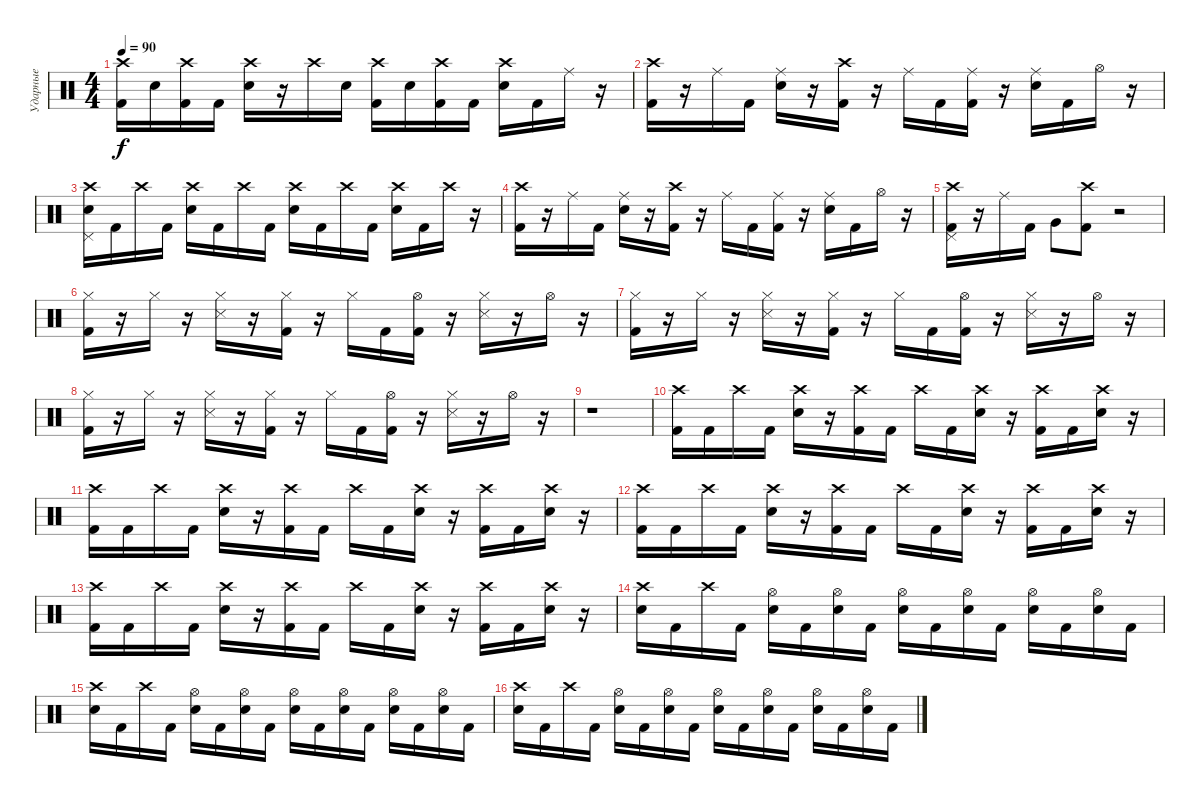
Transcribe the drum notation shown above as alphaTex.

\track ("Ударные" "Ударные") {instrument percussion}
\staff {score}
\articulation defaults
\ts (4 4)
\tempo 90
\clef neutral
\ks c
("Crash high (hit)" "Kick (hit) 2").16{dy f} "Electric Snare (hit)".16 ("Crash high (hit)" "Kick (hit) 2").16 "Kick (hit) 2".16 ("Crash high (hit)" "Electric Snare (hit)").16 r.16 "Crash high (hit)".16 "Electric Snare (hit)".16 ("Crash high (hit)" "Kick (hit) 2").16 "Electric Snare (hit)".16 ("Crash high (hit)" "Kick (hit) 2").16 "Kick (hit) 2".16 ("Crash high (hit)" "Electric Snare (hit)").16 "Kick (hit) 2".16 "Ride (middle)".16 r.16 |
("Crash high (hit)" "Kick (hit) 2").16 r.16 "Ride (middle)".16 "Kick (hit) 2".16 ("Ride (middle)" "Electric Snare (hit)").16 r.16 ("Crash high (hit)" "Kick (hit) 2").16 r.16 "Ride (middle)".16 "Kick (hit) 2".16 ("Ride (middle)" "Kick (hit) 2").16 r.16 ("Ride (middle)" "Electric Snare (hit)").16 "Kick (hit) 2".16 "Hi-Hat (open)".16 r.16 |
("Crash high (hit)" "Pedal Hi-Hat (hit)" "Electric Snare (hit)").16 "Kick (hit) 2".16 "Crash high (hit)".16 "Kick (hit) 2".16 ("Crash high (hit)" "Electric Snare (hit)").16 "Kick (hit) 2".16 "Crash high (hit)".16 "Kick (hit) 2".16 ("Crash high (hit)" "Electric Snare (hit)").16 "Kick (hit) 2".16 "Crash high (hit)".16 "Kick (hit) 2".16 ("Crash high (hit)" "Electric Snare (hit)").16 "Kick (hit) 2".16 "Crash high (hit)".16 r.16 |
("Crash high (hit)" "Kick (hit) 2").16 r.16 "Ride (middle)".16 "Kick (hit) 2".16 ("Ride (middle)" "Electric Snare (hit)").16 r.16 ("Crash high (hit)" "Kick (hit) 2").16 r.16 "Ride (middle)".16 "Kick (hit) 2".16 ("Ride (middle)" "Kick (hit) 2").16 r.16 ("Ride (middle)" "Electric Snare (hit)").16 "Kick (hit) 2".16 "Hi-Hat (open)".16 r.16 |
("Crash high (hit)" "Pedal Hi-Hat (hit)" "Kick (hit) 2").16 r.16 "Ride (middle)".16 "Kick (hit) 2".16 "Very Low Tom (hit)".8 ("Crash high (hit)" "Kick (hit) 2").8 r.2 |
("Hi-Hat (closed)" "Kick (hit) 2").16 r.16 "Hi-Hat (closed)".16 r.16 ("Hi-Hat (closed)" "Snare (side stick) 3").16 r.16 ("Hi-Hat (closed)" "Kick (hit) 2").16 r.16 "Hi-Hat (closed)".16 "Kick (hit) 2".16 ("Hi-Hat (open)" "Kick (hit) 2").16 r.16 ("Hi-Hat (closed)" "Snare (side stick) 3").16 r.16 "Hi-Hat (open)".16 r.16 |
("Hi-Hat (closed)" "Kick (hit) 2").16 r.16 "Hi-Hat (closed)".16 r.16 ("Hi-Hat (closed)" "Snare (side stick) 3").16 r.16 ("Hi-Hat (closed)" "Kick (hit) 2").16 r.16 "Hi-Hat (closed)".16 "Kick (hit) 2".16 ("Hi-Hat (open)" "Kick (hit) 2").16 r.16 ("Hi-Hat (closed)" "Snare (side stick) 3").16 r.16 "Hi-Hat (open)".16 r.16 |
("Hi-Hat (closed)" "Kick (hit) 2").16 r.16 "Hi-Hat (closed)".16 r.16 ("Hi-Hat (closed)" "Snare (side stick) 3").16 r.16 ("Hi-Hat (closed)" "Kick (hit) 2").16 r.16 "Hi-Hat (closed)".16 "Kick (hit) 2".16 ("Hi-Hat (open)" "Kick (hit) 2").16 r.16 ("Hi-Hat (closed)" "Snare (side stick) 3").16 r.16 "Hi-Hat (open)".16 r.16 |
r.1 |
("Crash high (hit)" "Kick (hit) 2").16 "Kick (hit) 2".16 "Crash high (hit)".16 "Kick (hit) 2".16 ("Crash high (hit)" "Electric Snare (hit)").16 r.16 ("Crash high (hit)" "Kick (hit) 2").16 "Kick (hit) 2".16 "Crash high (hit)".16 "Kick (hit) 2".16 ("Crash high (hit)" "Electric Snare (hit)").16 r.16 ("Crash high (hit)" "Kick (hit) 2").16 "Kick (hit) 2".16 ("Crash high (hit)" "Electric Snare (hit)").16 r.16 |
("Crash high (hit)" "Kick (hit) 2").16 "Kick (hit) 2".16 "Crash high (hit)".16 "Kick (hit) 2".16 ("Crash high (hit)" "Electric Snare (hit)").16 r.16 ("Crash high (hit)" "Kick (hit) 2").16 "Kick (hit) 2".16 "Crash high (hit)".16 "Kick (hit) 2".16 ("Crash high (hit)" "Electric Snare (hit)").16 r.16 ("Crash high (hit)" "Kick (hit) 2").16 "Kick (hit) 2".16 ("Crash high (hit)" "Electric Snare (hit)").16 r.16 |
("Crash high (hit)" "Kick (hit) 2").16 "Kick (hit) 2".16 "Crash high (hit)".16 "Kick (hit) 2".16 ("Crash high (hit)" "Electric Snare (hit)").16 r.16 ("Crash high (hit)" "Kick (hit) 2").16 "Kick (hit) 2".16 "Crash high (hit)".16 "Kick (hit) 2".16 ("Crash high (hit)" "Electric Snare (hit)").16 r.16 ("Crash high (hit)" "Kick (hit) 2").16 "Kick (hit) 2".16 ("Crash high (hit)" "Electric Snare (hit)").16 r.16 |
("Crash high (hit)" "Kick (hit) 2").16 "Kick (hit) 2".16 "Crash high (hit)".16 "Kick (hit) 2".16 ("Crash high (hit)" "Electric Snare (hit)").16 r.16 ("Crash high (hit)" "Kick (hit) 2").16 "Kick (hit) 2".16 "Crash high (hit)".16 "Kick (hit) 2".16 ("Crash high (hit)" "Electric Snare (hit)").16 r.16 ("Crash high (hit)" "Kick (hit) 2").16 "Kick (hit) 2".16 ("Crash high (hit)" "Electric Snare (hit)").16 r.16 |
("Crash high (hit)" "Electric Snare (hit)").16 "Kick (hit) 2".16 "Crash high (hit)".16 "Kick (hit) 2".16 ("Hi-Hat (open)" "Electric Snare (hit)").16 "Kick (hit) 2".16 ("Hi-Hat (open)" "Electric Snare (hit)").16 "Kick (hit) 2".16 ("Hi-Hat (open)" "Electric Snare (hit)").16 "Kick (hit) 2".16 ("Hi-Hat (open)" "Electric Snare (hit)").16 "Kick (hit) 2".16 ("Hi-Hat (open)" "Electric Snare (hit)").16 "Kick (hit) 2".16 ("Hi-Hat (open)" "Electric Snare (hit)").16 "Kick (hit) 2".16 |
("Crash high (hit)" "Electric Snare (hit)").16 "Kick (hit) 2".16 "Crash high (hit)".16 "Kick (hit) 2".16 ("Hi-Hat (open)" "Electric Snare (hit)").16 "Kick (hit) 2".16 ("Hi-Hat (open)" "Electric Snare (hit)").16 "Kick (hit) 2".16 ("Hi-Hat (open)" "Electric Snare (hit)").16 "Kick (hit) 2".16 ("Hi-Hat (open)" "Electric Snare (hit)").16 "Kick (hit) 2".16 ("Hi-Hat (open)" "Electric Snare (hit)").16 "Kick (hit) 2".16 ("Hi-Hat (open)" "Electric Snare (hit)").16 "Kick (hit) 2".16 |
("Crash high (hit)" "Electric Snare (hit)").16 "Kick (hit) 2".16 "Crash high (hit)".16 "Kick (hit) 2".16 ("Hi-Hat (open)" "Electric Snare (hit)").16 "Kick (hit) 2".16 ("Hi-Hat (open)" "Electric Snare (hit)").16 "Kick (hit) 2".16 ("Hi-Hat (open)" "Electric Snare (hit)").16 "Kick (hit) 2".16 ("Hi-Hat (open)" "Electric Snare (hit)").16 "Kick (hit) 2".16 ("Hi-Hat (open)" "Electric Snare (hit)").16 "Kick (hit) 2".16 ("Hi-Hat (open)" "Electric Snare (hit)").16 "Kick (hit) 2".16
